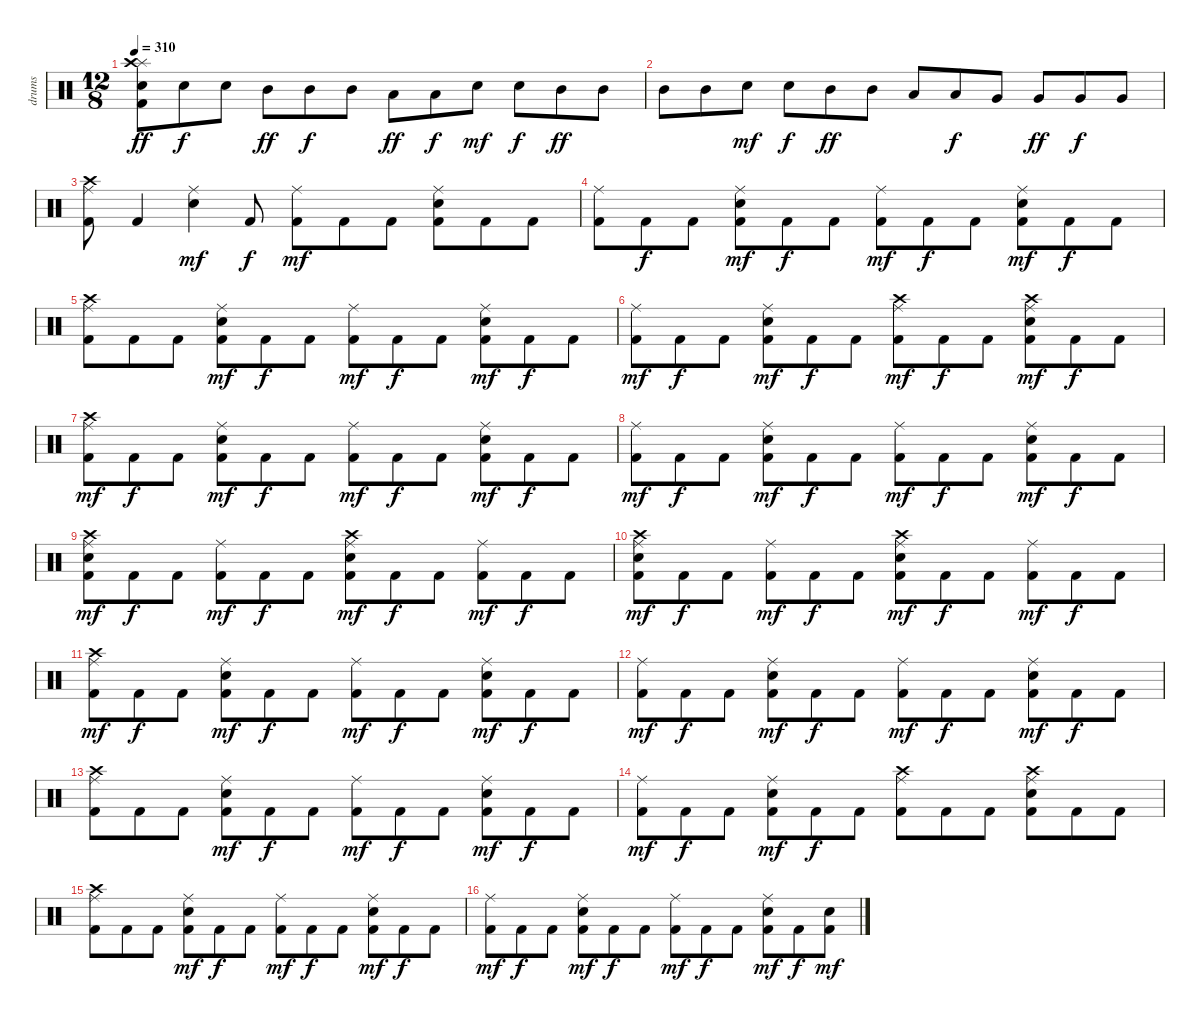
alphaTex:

\track ("drums" "drums") {instrument percussion}
\staff {score}
\articulation defaults
\ts (12 8)
\tempo 310
\clef neutral
\ks c
("Splash (hit)" "Snare (hit) 2" "Crash high (hit)" "Kick (hit) 2").8{dy ff} "Snare (hit) 2".8{dy f} "Snare (hit) 2".8 "Mid Tom (hit)".8{dy ff} "Mid Tom (hit)".8{dy f} "Mid Tom (hit)".8 "Low Tom (hit)".8{dy ff} "Low Tom (hit)".8{dy f} "Snare (hit) 2".8{dy mf} "Snare (hit) 2".8{dy f} "Mid Tom (hit)".8{dy ff} "Mid Tom (hit)".8 |
"Mid Tom (hit)".8 "Mid Tom (hit)".8 "Snare (hit) 2".8{dy mf} "Snare (hit) 2".8{dy f} "Mid Tom (hit)".8{dy ff} "Mid Tom (hit)".8 "Low Tom (hit)".8 "Low Tom (hit)".8{dy f} "Very Low Tom (hit)".8 "Very Low Tom (hit)".8{dy ff} "Very Low Tom (hit)".8{dy f} "Very Low Tom (hit)".8 |
("Ride (middle)" "Crash high (hit)" "Kick (hit) 2").8 "Kick (hit) 2".4 ("Ride (middle)" "Snare (hit) 2").4{dy mf} "Kick (hit) 2".8{dy f} ("Ride (middle)" "Kick (hit) 2").8{dy mf} "Kick (hit) 2".8 "Kick (hit) 2".8 ("Ride (middle)" "Snare (hit) 2" "Kick (hit) 2").8 "Kick (hit) 2".8 "Kick (hit) 2".8 |
("Ride (middle)" "Kick (hit) 2").8 "Kick (hit) 2".8{dy f} "Kick (hit) 2".8 ("Ride (middle)" "Snare (hit) 2" "Kick (hit) 2").8{dy mf} "Kick (hit) 2".8{dy f} "Kick (hit) 2".8 ("Ride (middle)" "Kick (hit) 2").8{dy mf} "Kick (hit) 2".8{dy f} "Kick (hit) 2".8 ("Ride (middle)" "Snare (hit) 2" "Kick (hit) 2").8{dy mf} "Kick (hit) 2".8{dy f} "Kick (hit) 2".8 |
("Ride (middle)" "Crash high (hit)" "Kick (hit) 2").8 "Kick (hit) 2".8 "Kick (hit) 2".8 ("Ride (middle)" "Snare (hit) 2" "Kick (hit) 2").8{dy mf} "Kick (hit) 2".8{dy f} "Kick (hit) 2".8 ("Ride (middle)" "Kick (hit) 2").8{dy mf} "Kick (hit) 2".8{dy f} "Kick (hit) 2".8 ("Ride (middle)" "Snare (hit) 2" "Kick (hit) 2").8{dy mf} "Kick (hit) 2".8{dy f} "Kick (hit) 2".8 |
("Ride (middle)" "Kick (hit) 2").8{dy mf} "Kick (hit) 2".8{dy f} "Kick (hit) 2".8 ("Ride (middle)" "Snare (hit) 2" "Kick (hit) 2").8{dy mf} "Kick (hit) 2".8{dy f} "Kick (hit) 2".8 ("Ride (middle)" "Crash high (hit)" "Kick (hit) 2").8{dy mf} "Kick (hit) 2".8{dy f} "Kick (hit) 2".8 ("Ride (middle)" "Crash high (hit)" "Snare (hit) 2" "Kick (hit) 2").8{dy mf} "Kick (hit) 2".8{dy f} "Kick (hit) 2".8 |
("Ride (middle)" "Crash high (hit)" "Kick (hit) 2").8{dy mf} "Kick (hit) 2".8{dy f} "Kick (hit) 2".8 ("Ride (middle)" "Snare (hit) 2" "Kick (hit) 2").8{dy mf} "Kick (hit) 2".8{dy f} "Kick (hit) 2".8 ("Ride (middle)" "Kick (hit) 2").8{dy mf} "Kick (hit) 2".8{dy f} "Kick (hit) 2".8 ("Ride (middle)" "Snare (hit) 2" "Kick (hit) 2").8{dy mf} "Kick (hit) 2".8{dy f} "Kick (hit) 2".8 |
("Ride (middle)" "Kick (hit) 2").8{dy mf} "Kick (hit) 2".8{dy f} "Kick (hit) 2".8 ("Ride (middle)" "Snare (hit) 2" "Kick (hit) 2").8{dy mf} "Kick (hit) 2".8{dy f} "Kick (hit) 2".8 ("Ride (middle)" "Kick (hit) 2").8{dy mf} "Kick (hit) 2".8{dy f} "Kick (hit) 2".8 ("Ride (middle)" "Snare (hit) 2" "Kick (hit) 2").8{dy mf} "Kick (hit) 2".8{dy f} "Kick (hit) 2".8 |
("Ride (middle)" "Crash high (hit)" "Snare (hit) 2" "Kick (hit) 2").8{dy mf} "Kick (hit) 2".8{dy f} "Kick (hit) 2".8 ("Ride (middle)" "Kick (hit) 2").8{dy mf} "Kick (hit) 2".8{dy f} "Kick (hit) 2".8 ("Ride (middle)" "Crash high (hit)" "Snare (hit) 2" "Kick (hit) 2").8{dy mf} "Kick (hit) 2".8{dy f} "Kick (hit) 2".8 ("Ride (middle)" "Kick (hit) 2").8{dy mf} "Kick (hit) 2".8{dy f} "Kick (hit) 2".8 |
("Ride (middle)" "Crash high (hit)" "Snare (hit) 2" "Kick (hit) 2").8{dy mf} "Kick (hit) 2".8{dy f} "Kick (hit) 2".8 ("Ride (middle)" "Kick (hit) 2").8{dy mf} "Kick (hit) 2".8{dy f} "Kick (hit) 2".8 ("Ride (middle)" "Crash high (hit)" "Snare (hit) 2" "Kick (hit) 2").8{dy mf} "Kick (hit) 2".8{dy f} "Kick (hit) 2".8 ("Ride (middle)" "Kick (hit) 2").8{dy mf} "Kick (hit) 2".8{dy f} "Kick (hit) 2".8 |
("Ride (middle)" "Crash high (hit)" "Kick (hit) 2").8{dy mf} "Kick (hit) 2".8{dy f} "Kick (hit) 2".8 ("Ride (middle)" "Snare (hit) 2" "Kick (hit) 2").8{dy mf} "Kick (hit) 2".8{dy f} "Kick (hit) 2".8 ("Ride (middle)" "Kick (hit) 2").8{dy mf} "Kick (hit) 2".8{dy f} "Kick (hit) 2".8 ("Ride (middle)" "Snare (hit) 2" "Kick (hit) 2").8{dy mf} "Kick (hit) 2".8{dy f} "Kick (hit) 2".8 |
("Ride (middle)" "Kick (hit) 2").8{dy mf} "Kick (hit) 2".8{dy f} "Kick (hit) 2".8 ("Ride (middle)" "Snare (hit) 2" "Kick (hit) 2").8{dy mf} "Kick (hit) 2".8{dy f} "Kick (hit) 2".8 ("Ride (middle)" "Kick (hit) 2").8{dy mf} "Kick (hit) 2".8{dy f} "Kick (hit) 2".8 ("Ride (middle)" "Snare (hit) 2" "Kick (hit) 2").8{dy mf} "Kick (hit) 2".8{dy f} "Kick (hit) 2".8 |
("Ride (middle)" "Crash high (hit)" "Kick (hit) 2").8 "Kick (hit) 2".8 "Kick (hit) 2".8 ("Ride (middle)" "Snare (hit) 2" "Kick (hit) 2").8{dy mf} "Kick (hit) 2".8{dy f} "Kick (hit) 2".8 ("Ride (middle)" "Kick (hit) 2").8{dy mf} "Kick (hit) 2".8{dy f} "Kick (hit) 2".8 ("Ride (middle)" "Snare (hit) 2" "Kick (hit) 2").8{dy mf} "Kick (hit) 2".8{dy f} "Kick (hit) 2".8 |
("Ride (middle)" "Kick (hit) 2").8{dy mf} "Kick (hit) 2".8{dy f} "Kick (hit) 2".8 ("Ride (middle)" "Snare (hit) 2" "Kick (hit) 2").8{dy mf} "Kick (hit) 2".8{dy f} "Kick (hit) 2".8 ("Ride (middle)" "Crash high (hit)" "Kick (hit) 2").8 "Kick (hit) 2".8 "Kick (hit) 2".8 ("Ride (middle)" "Crash high (hit)" "Snare (hit) 2" "Kick (hit) 2").8 "Kick (hit) 2".8 "Kick (hit) 2".8 |
("Ride (middle)" "Crash high (hit)" "Kick (hit) 2").8 "Kick (hit) 2".8 "Kick (hit) 2".8 ("Ride (middle)" "Snare (hit) 2" "Kick (hit) 2").8{dy mf} "Kick (hit) 2".8{dy f} "Kick (hit) 2".8 ("Ride (middle)" "Kick (hit) 2").8{dy mf} "Kick (hit) 2".8{dy f} "Kick (hit) 2".8 ("Ride (middle)" "Snare (hit) 2" "Kick (hit) 2").8{dy mf} "Kick (hit) 2".8{dy f} "Kick (hit) 2".8 |
("Ride (middle)" "Kick (hit) 2").8{dy mf} "Kick (hit) 2".8{dy f} "Kick (hit) 2".8 ("Ride (middle)" "Snare (hit) 2" "Kick (hit) 2").8{dy mf} "Kick (hit) 2".8{dy f} "Kick (hit) 2".8 ("Ride (middle)" "Kick (hit) 2").8{dy mf} "Kick (hit) 2".8{dy f} "Kick (hit) 2".8 ("Ride (middle)" "Snare (hit) 2" "Kick (hit) 2").8{dy mf} "Kick (hit) 2".8{dy f} ("Snare (hit) 2" "Kick (hit) 2").8{dy mf}
